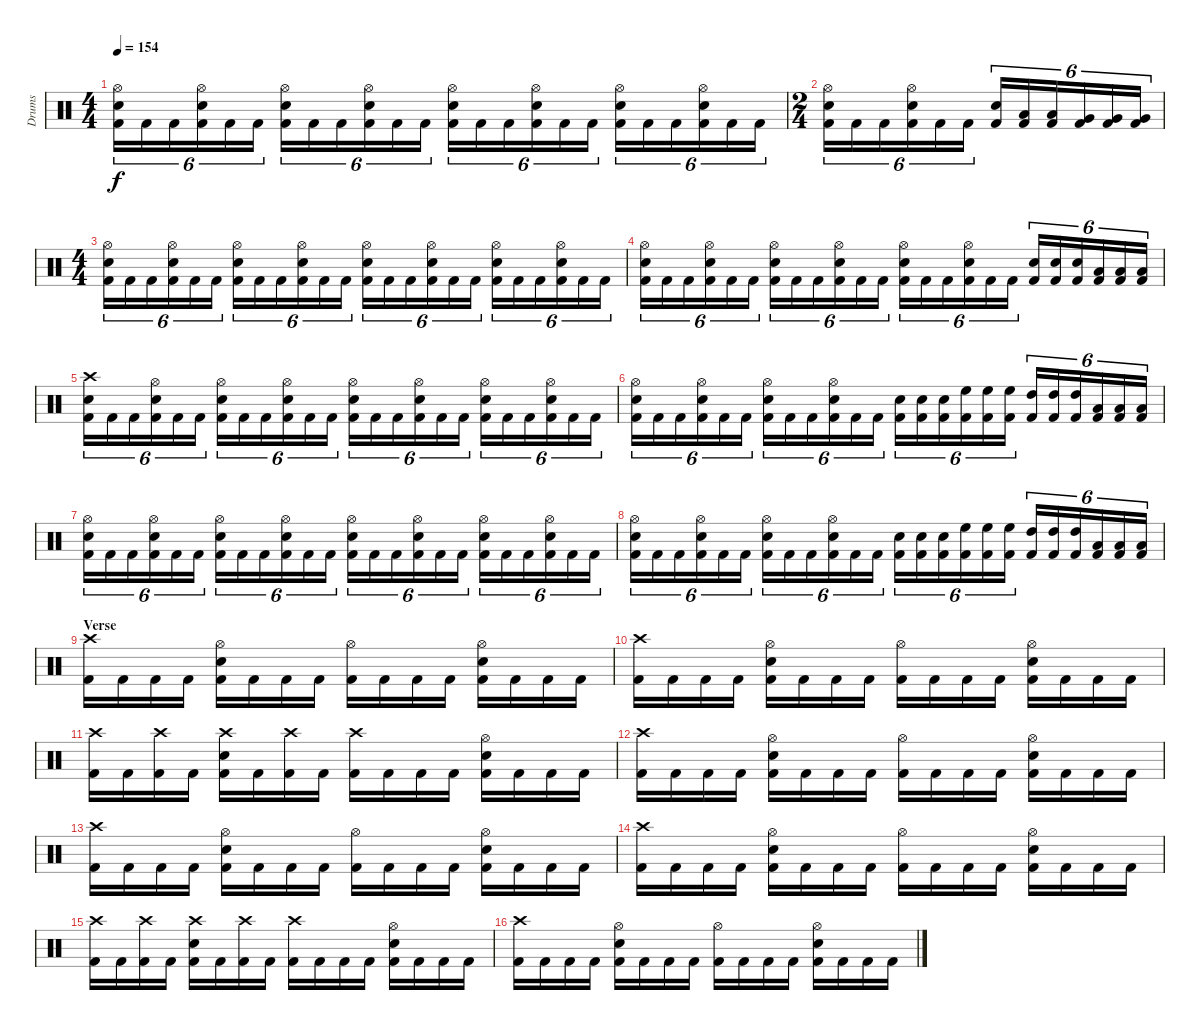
\track ("Drums" "Drums") {instrument percussion}
\staff {score}
\articulation defaults
\ts (4 4)
\tempo 154
\clef neutral
\ks c
("Hi-Hat (open)" "Electric Snare (hit)" "Kick (hit) 2").16{tu (6 4) dy f} "Kick (hit) 2".16{tu (6 4)} "Kick (hit) 2".16{tu (6 4)} ("Hi-Hat (open)" "Electric Snare (hit)" "Kick (hit) 2").16{tu (6 4)} "Kick (hit) 2".16{tu (6 4)} "Kick (hit) 2".16{tu (6 4)} ("Hi-Hat (open)" "Electric Snare (hit)" "Kick (hit) 2").16{tu (6 4)} "Kick (hit) 2".16{tu (6 4)} "Kick (hit) 2".16{tu (6 4)} ("Hi-Hat (open)" "Electric Snare (hit)" "Kick (hit) 2").16{tu (6 4)} "Kick (hit) 2".16{tu (6 4)} "Kick (hit) 2".16{tu (6 4)} ("Hi-Hat (open)" "Electric Snare (hit)" "Kick (hit) 2").16{tu (6 4)} "Kick (hit) 2".16{tu (6 4)} "Kick (hit) 2".16{tu (6 4)} ("Hi-Hat (open)" "Electric Snare (hit)" "Kick (hit) 2").16{tu (6 4)} "Kick (hit) 2".16{tu (6 4)} "Kick (hit) 2".16{tu (6 4)} ("Hi-Hat (open)" "Electric Snare (hit)" "Kick (hit) 2").16{tu (6 4)} "Kick (hit) 2".16{tu (6 4)} "Kick (hit) 2".16{tu (6 4)} ("Hi-Hat (open)" "Electric Snare (hit)" "Kick (hit) 2").16{tu (6 4)} "Kick (hit) 2".16{tu (6 4)} "Kick (hit) 2".16{tu (6 4)} |
\ts (2 4)
("Hi-Hat (open)" "Electric Snare (hit)" "Kick (hit) 2").16{tu (6 4)} "Kick (hit) 2".16{tu (6 4)} "Kick (hit) 2".16{tu (6 4)} ("Hi-Hat (open)" "Electric Snare (hit)" "Kick (hit) 2").16{tu (6 4)} "Kick (hit) 2".16{tu (6 4)} "Kick (hit) 2".16{tu (6 4)} ("Electric Snare (hit)" "Kick (hit) 2").16{tu (6 4)} ("Low Tom (hit)" "Kick (hit) 2").16{tu (6 4)} ("Low Tom (hit)" "Kick (hit) 2").16{tu (6 4)} ("Very Low Tom (hit)" "Kick (hit) 2").16{tu (6 4)} ("Very Low Tom (hit)" "Kick (hit) 2").16{tu (6 4)} ("Very Low Tom (hit)" "Kick (hit) 2").16{tu (6 4)} |
\ts (4 4)
("Hi-Hat (open)" "Electric Snare (hit)" "Kick (hit) 2").16{tu (6 4)} "Kick (hit) 2".16{tu (6 4)} "Kick (hit) 2".16{tu (6 4)} ("Hi-Hat (open)" "Electric Snare (hit)" "Kick (hit) 2").16{tu (6 4)} "Kick (hit) 2".16{tu (6 4)} "Kick (hit) 2".16{tu (6 4)} ("Hi-Hat (open)" "Electric Snare (hit)" "Kick (hit) 2").16{tu (6 4)} "Kick (hit) 2".16{tu (6 4)} "Kick (hit) 2".16{tu (6 4)} ("Hi-Hat (open)" "Electric Snare (hit)" "Kick (hit) 2").16{tu (6 4)} "Kick (hit) 2".16{tu (6 4)} "Kick (hit) 2".16{tu (6 4)} ("Hi-Hat (open)" "Electric Snare (hit)" "Kick (hit) 2").16{tu (6 4)} "Kick (hit) 2".16{tu (6 4)} "Kick (hit) 2".16{tu (6 4)} ("Hi-Hat (open)" "Electric Snare (hit)" "Kick (hit) 2").16{tu (6 4)} "Kick (hit) 2".16{tu (6 4)} "Kick (hit) 2".16{tu (6 4)} ("Hi-Hat (open)" "Electric Snare (hit)" "Kick (hit) 2").16{tu (6 4)} "Kick (hit) 2".16{tu (6 4)} "Kick (hit) 2".16{tu (6 4)} ("Hi-Hat (open)" "Electric Snare (hit)" "Kick (hit) 2").16{tu (6 4)} "Kick (hit) 2".16{tu (6 4)} "Kick (hit) 2".16{tu (6 4)} |
("Hi-Hat (open)" "Electric Snare (hit)" "Kick (hit) 2").16{tu (6 4)} "Kick (hit) 2".16{tu (6 4)} "Kick (hit) 2".16{tu (6 4)} ("Hi-Hat (open)" "Electric Snare (hit)" "Kick (hit) 2").16{tu (6 4)} "Kick (hit) 2".16{tu (6 4)} "Kick (hit) 2".16{tu (6 4)} ("Hi-Hat (open)" "Electric Snare (hit)" "Kick (hit) 2").16{tu (6 4)} "Kick (hit) 2".16{tu (6 4)} "Kick (hit) 2".16{tu (6 4)} ("Hi-Hat (open)" "Electric Snare (hit)" "Kick (hit) 2").16{tu (6 4)} "Kick (hit) 2".16{tu (6 4)} "Kick (hit) 2".16{tu (6 4)} ("Hi-Hat (open)" "Electric Snare (hit)" "Kick (hit) 2").16{tu (6 4)} "Kick (hit) 2".16{tu (6 4)} "Kick (hit) 2".16{tu (6 4)} ("Hi-Hat (open)" "Electric Snare (hit)" "Kick (hit) 2").16{tu (6 4)} "Kick (hit) 2".16{tu (6 4)} "Kick (hit) 2".16{tu (6 4)} ("Electric Snare (hit)" "Kick (hit) 2").16{tu (6 4)} ("Electric Snare (hit)" "Kick (hit) 2").16{tu (6 4)} ("Electric Snare (hit)" "Kick (hit) 2").16{tu (6 4)} ("Low Tom (hit)" "Kick (hit) 2").16{tu (6 4)} ("Low Tom (hit)" "Kick (hit) 2").16{tu (6 4)} ("Low Tom (hit)" "Kick (hit) 2").16{tu (6 4)} |
("Crash high (hit)" "Electric Snare (hit)" "Kick (hit) 2").16{tu (6 4)} "Kick (hit) 2".16{tu (6 4)} "Kick (hit) 2".16{tu (6 4)} ("Hi-Hat (open)" "Electric Snare (hit)" "Kick (hit) 2").16{tu (6 4)} "Kick (hit) 2".16{tu (6 4)} "Kick (hit) 2".16{tu (6 4)} ("Hi-Hat (open)" "Electric Snare (hit)" "Kick (hit) 2").16{tu (6 4)} "Kick (hit) 2".16{tu (6 4)} "Kick (hit) 2".16{tu (6 4)} ("Hi-Hat (open)" "Electric Snare (hit)" "Kick (hit) 2").16{tu (6 4)} "Kick (hit) 2".16{tu (6 4)} "Kick (hit) 2".16{tu (6 4)} ("Hi-Hat (open)" "Electric Snare (hit)" "Kick (hit) 2").16{tu (6 4)} "Kick (hit) 2".16{tu (6 4)} "Kick (hit) 2".16{tu (6 4)} ("Hi-Hat (open)" "Electric Snare (hit)" "Kick (hit) 2").16{tu (6 4)} "Kick (hit) 2".16{tu (6 4)} "Kick (hit) 2".16{tu (6 4)} ("Hi-Hat (open)" "Electric Snare (hit)" "Kick (hit) 2").16{tu (6 4)} "Kick (hit) 2".16{tu (6 4)} "Kick (hit) 2".16{tu (6 4)} ("Hi-Hat (open)" "Electric Snare (hit)" "Kick (hit) 2").16{tu (6 4)} "Kick (hit) 2".16{tu (6 4)} "Kick (hit) 2".16{tu (6 4)} |
("Hi-Hat (open)" "Electric Snare (hit)" "Kick (hit) 2").16{tu (6 4)} "Kick (hit) 2".16{tu (6 4)} "Kick (hit) 2".16{tu (6 4)} ("Hi-Hat (open)" "Electric Snare (hit)" "Kick (hit) 2").16{tu (6 4)} "Kick (hit) 2".16{tu (6 4)} "Kick (hit) 2".16{tu (6 4)} ("Hi-Hat (open)" "Electric Snare (hit)" "Kick (hit) 2").16{tu (6 4)} "Kick (hit) 2".16{tu (6 4)} "Kick (hit) 2".16{tu (6 4)} ("Hi-Hat (open)" "Electric Snare (hit)" "Kick (hit) 2").16{tu (6 4)} "Kick (hit) 2".16{tu (6 4)} "Kick (hit) 2".16{tu (6 4)} ("Electric Snare (hit)" "Kick (hit) 2").16{tu (6 4)} ("Electric Snare (hit)" "Kick (hit) 2").16{tu (6 4)} ("Electric Snare (hit)" "Kick (hit) 2").16{tu (6 4)} ("High Floor Tom (hit)" "Kick (hit) 2").16{tu (6 4)} ("High Floor Tom (hit)" "Kick (hit) 2").16{tu (6 4)} ("High Floor Tom (hit)" "Kick (hit) 2").16{tu (6 4)} ("High Tom (hit)" "Kick (hit) 2").16{tu (6 4)} ("High Tom (hit)" "Kick (hit) 2").16{tu (6 4)} ("High Tom (hit)" "Kick (hit) 2").16{tu (6 4)} ("Low Tom (hit)" "Kick (hit) 2").16{tu (6 4)} ("Low Tom (hit)" "Kick (hit) 2").16{tu (6 4)} ("Low Tom (hit)" "Kick (hit) 2").16{tu (6 4)} |
("Hi-Hat (open)" "Electric Snare (hit)" "Kick (hit) 2").16{tu (6 4)} "Kick (hit) 2".16{tu (6 4)} "Kick (hit) 2".16{tu (6 4)} ("Hi-Hat (open)" "Electric Snare (hit)" "Kick (hit) 2").16{tu (6 4)} "Kick (hit) 2".16{tu (6 4)} "Kick (hit) 2".16{tu (6 4)} ("Hi-Hat (open)" "Electric Snare (hit)" "Kick (hit) 2").16{tu (6 4)} "Kick (hit) 2".16{tu (6 4)} "Kick (hit) 2".16{tu (6 4)} ("Hi-Hat (open)" "Electric Snare (hit)" "Kick (hit) 2").16{tu (6 4)} "Kick (hit) 2".16{tu (6 4)} "Kick (hit) 2".16{tu (6 4)} ("Hi-Hat (open)" "Electric Snare (hit)" "Kick (hit) 2").16{tu (6 4)} "Kick (hit) 2".16{tu (6 4)} "Kick (hit) 2".16{tu (6 4)} ("Hi-Hat (open)" "Electric Snare (hit)" "Kick (hit) 2").16{tu (6 4)} "Kick (hit) 2".16{tu (6 4)} "Kick (hit) 2".16{tu (6 4)} ("Hi-Hat (open)" "Electric Snare (hit)" "Kick (hit) 2").16{tu (6 4)} "Kick (hit) 2".16{tu (6 4)} "Kick (hit) 2".16{tu (6 4)} ("Hi-Hat (open)" "Electric Snare (hit)" "Kick (hit) 2").16{tu (6 4)} "Kick (hit) 2".16{tu (6 4)} "Kick (hit) 2".16{tu (6 4)} |
("Hi-Hat (open)" "Electric Snare (hit)" "Kick (hit) 2").16{tu (6 4)} "Kick (hit) 2".16{tu (6 4)} "Kick (hit) 2".16{tu (6 4)} ("Hi-Hat (open)" "Electric Snare (hit)" "Kick (hit) 2").16{tu (6 4)} "Kick (hit) 2".16{tu (6 4)} "Kick (hit) 2".16{tu (6 4)} ("Hi-Hat (open)" "Electric Snare (hit)" "Kick (hit) 2").16{tu (6 4)} "Kick (hit) 2".16{tu (6 4)} "Kick (hit) 2".16{tu (6 4)} ("Hi-Hat (open)" "Electric Snare (hit)" "Kick (hit) 2").16{tu (6 4)} "Kick (hit) 2".16{tu (6 4)} "Kick (hit) 2".16{tu (6 4)} ("Electric Snare (hit)" "Kick (hit) 2").16{tu (6 4)} ("Electric Snare (hit)" "Kick (hit) 2").16{tu (6 4)} ("Electric Snare (hit)" "Kick (hit) 2").16{tu (6 4)} ("High Floor Tom (hit)" "Kick (hit) 2").16{tu (6 4)} ("High Floor Tom (hit)" "Kick (hit) 2").16{tu (6 4)} ("High Floor Tom (hit)" "Kick (hit) 2").16{tu (6 4)} ("High Tom (hit)" "Kick (hit) 2").16{tu (6 4)} ("High Tom (hit)" "Kick (hit) 2").16{tu (6 4)} ("High Tom (hit)" "Kick (hit) 2").16{tu (6 4)} ("Low Tom (hit)" "Kick (hit) 2").16{tu (6 4)} ("Low Tom (hit)" "Kick (hit) 2").16{tu (6 4)} ("Low Tom (hit)" "Kick (hit) 2").16{tu (6 4)} |
\section ("" "Verse")
("Crash high (hit)" "Kick (hit) 2").16 "Kick (hit) 2".16 "Kick (hit) 2".16 "Kick (hit) 2".16 ("Hi-Hat (open)" "Electric Snare (hit)" "Kick (hit) 2").16 "Kick (hit) 2".16 "Kick (hit) 2".16 "Kick (hit) 2".16 ("Hi-Hat (open)" "Kick (hit) 2").16 "Kick (hit) 2".16 "Kick (hit) 2".16 "Kick (hit) 2".16 ("Hi-Hat (open)" "Electric Snare (hit)" "Kick (hit) 2").16 "Kick (hit) 2".16 "Kick (hit) 2".16 "Kick (hit) 2".16 |
("Crash high (hit)" "Kick (hit) 2").16 "Kick (hit) 2".16 "Kick (hit) 2".16 "Kick (hit) 2".16 ("Hi-Hat (open)" "Electric Snare (hit)" "Kick (hit) 2").16 "Kick (hit) 2".16 "Kick (hit) 2".16 "Kick (hit) 2".16 ("Hi-Hat (open)" "Kick (hit) 2").16 "Kick (hit) 2".16 "Kick (hit) 2".16 "Kick (hit) 2".16 ("Hi-Hat (open)" "Electric Snare (hit)" "Kick (hit) 2").16 "Kick (hit) 2".16 "Kick (hit) 2".16 "Kick (hit) 2".16 |
("Crash high (hit)" "Kick (hit) 2").16 "Kick (hit) 2".16 ("Crash high (hit)" "Kick (hit) 2").16 "Kick (hit) 2".16 ("Crash high (hit)" "Electric Snare (hit)" "Kick (hit) 2").16 "Kick (hit) 2".16 ("Crash high (hit)" "Kick (hit) 2").16 "Kick (hit) 2".16 ("Crash high (hit)" "Kick (hit) 2").16 "Kick (hit) 2".16 "Kick (hit) 2".16 "Kick (hit) 2".16 ("Hi-Hat (open)" "Electric Snare (hit)" "Kick (hit) 2").16 "Kick (hit) 2".16 "Kick (hit) 2".16 "Kick (hit) 2".16 |
("Crash high (hit)" "Kick (hit) 2").16 "Kick (hit) 2".16 "Kick (hit) 2".16 "Kick (hit) 2".16 ("Hi-Hat (open)" "Electric Snare (hit)" "Kick (hit) 2").16 "Kick (hit) 2".16 "Kick (hit) 2".16 "Kick (hit) 2".16 ("Hi-Hat (open)" "Kick (hit) 2").16 "Kick (hit) 2".16 "Kick (hit) 2".16 "Kick (hit) 2".16 ("Hi-Hat (open)" "Electric Snare (hit)" "Kick (hit) 2").16 "Kick (hit) 2".16 "Kick (hit) 2".16 "Kick (hit) 2".16 |
("Crash high (hit)" "Kick (hit) 2").16 "Kick (hit) 2".16 "Kick (hit) 2".16 "Kick (hit) 2".16 ("Hi-Hat (open)" "Electric Snare (hit)" "Kick (hit) 2").16 "Kick (hit) 2".16 "Kick (hit) 2".16 "Kick (hit) 2".16 ("Hi-Hat (open)" "Kick (hit) 2").16 "Kick (hit) 2".16 "Kick (hit) 2".16 "Kick (hit) 2".16 ("Hi-Hat (open)" "Electric Snare (hit)" "Kick (hit) 2").16 "Kick (hit) 2".16 "Kick (hit) 2".16 "Kick (hit) 2".16 |
("Crash high (hit)" "Kick (hit) 2").16 "Kick (hit) 2".16 "Kick (hit) 2".16 "Kick (hit) 2".16 ("Hi-Hat (open)" "Electric Snare (hit)" "Kick (hit) 2").16 "Kick (hit) 2".16 "Kick (hit) 2".16 "Kick (hit) 2".16 ("Hi-Hat (open)" "Kick (hit) 2").16 "Kick (hit) 2".16 "Kick (hit) 2".16 "Kick (hit) 2".16 ("Hi-Hat (open)" "Electric Snare (hit)" "Kick (hit) 2").16 "Kick (hit) 2".16 "Kick (hit) 2".16 "Kick (hit) 2".16 |
("Crash high (hit)" "Kick (hit) 2").16 "Kick (hit) 2".16 ("Crash high (hit)" "Kick (hit) 2").16 "Kick (hit) 2".16 ("Crash high (hit)" "Electric Snare (hit)" "Kick (hit) 2").16 "Kick (hit) 2".16 ("Crash high (hit)" "Kick (hit) 2").16 "Kick (hit) 2".16 ("Crash high (hit)" "Kick (hit) 2").16 "Kick (hit) 2".16 "Kick (hit) 2".16 "Kick (hit) 2".16 ("Hi-Hat (open)" "Electric Snare (hit)" "Kick (hit) 2").16 "Kick (hit) 2".16 "Kick (hit) 2".16 "Kick (hit) 2".16 |
("Crash high (hit)" "Kick (hit) 2").16 "Kick (hit) 2".16 "Kick (hit) 2".16 "Kick (hit) 2".16 ("Hi-Hat (open)" "Electric Snare (hit)" "Kick (hit) 2").16 "Kick (hit) 2".16 "Kick (hit) 2".16 "Kick (hit) 2".16 ("Hi-Hat (open)" "Kick (hit) 2").16 "Kick (hit) 2".16 "Kick (hit) 2".16 "Kick (hit) 2".16 ("Hi-Hat (open)" "Electric Snare (hit)" "Kick (hit) 2").16 "Kick (hit) 2".16 "Kick (hit) 2".16 "Kick (hit) 2".16
